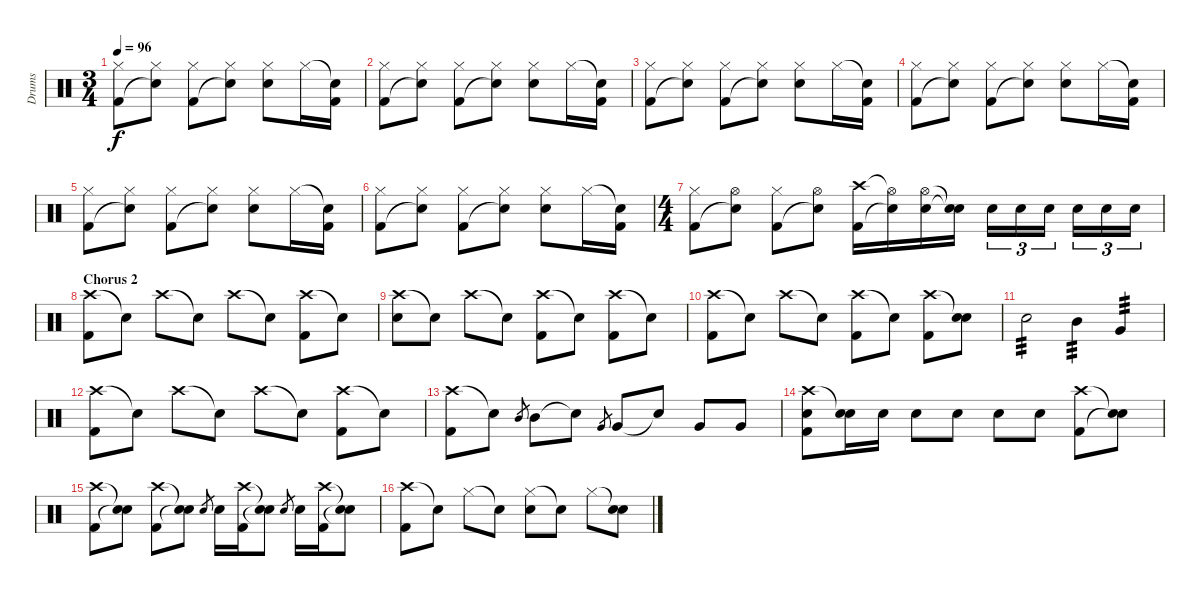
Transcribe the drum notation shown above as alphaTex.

\track ("Drums" "Drums") {instrument percussion}
\staff {score}
\articulation defaults
\ts (3 4)
\tempo 96
\clef neutral
\ks c
("Hi-Hat (closed)" "Kick (hit) 2").8{dy f} ("Hi-Hat (closed)" "Snare (hit)"{t}).8 ("Hi-Hat (closed)" "Kick (hit) 2").8 ("Hi-Hat (closed)" "Snare (hit)"{t}).8 ("Hi-Hat (closed)" "Electric Snare (hit)").8 "Hi-Hat (closed)".16 ("Snare (hit)"{t} "Kick (hit) 2").16 |
("Hi-Hat (closed)" "Kick (hit) 2").8 ("Hi-Hat (closed)" "Snare (hit)"{t}).8 ("Hi-Hat (closed)" "Kick (hit) 2").8 ("Hi-Hat (closed)" "Snare (hit)"{t}).8 ("Hi-Hat (closed)" "Electric Snare (hit)").8 "Hi-Hat (closed)".16 ("Snare (hit)"{t} "Kick (hit) 2").16 |
("Hi-Hat (closed)" "Kick (hit) 2").8 ("Hi-Hat (closed)" "Snare (hit)"{t}).8 ("Hi-Hat (closed)" "Kick (hit) 2").8 ("Hi-Hat (closed)" "Snare (hit)"{t}).8 ("Hi-Hat (closed)" "Electric Snare (hit)").8 "Hi-Hat (closed)".16 ("Snare (hit)"{t} "Kick (hit) 2").16 |
("Hi-Hat (closed)" "Kick (hit) 2").8 ("Hi-Hat (closed)" "Snare (hit)"{t}).8 ("Hi-Hat (closed)" "Kick (hit) 2").8 ("Hi-Hat (closed)" "Snare (hit)"{t}).8 ("Hi-Hat (closed)" "Electric Snare (hit)").8 "Hi-Hat (closed)".16 ("Snare (hit)"{t} "Kick (hit) 2").16 |
("Hi-Hat (closed)" "Kick (hit) 2").8 ("Hi-Hat (closed)" "Snare (hit)"{t}).8 ("Hi-Hat (closed)" "Kick (hit) 2").8 ("Hi-Hat (closed)" "Snare (hit)"{t}).8 ("Hi-Hat (closed)" "Electric Snare (hit)").8 "Hi-Hat (closed)".16 ("Snare (hit)"{t} "Kick (hit) 2").16 |
("Hi-Hat (closed)" "Kick (hit) 2").8 ("Hi-Hat (closed)" "Snare (hit)"{t}).8 ("Hi-Hat (closed)" "Kick (hit) 2").8 ("Hi-Hat (closed)" "Snare (hit)"{t}).8 ("Hi-Hat (closed)" "Electric Snare (hit)").8 "Hi-Hat (closed)".16 ("Snare (hit)"{t} "Kick (hit) 2").16 |
\ts (4 4)
("Hi-Hat (closed)" "Kick (hit) 2").8 ("Hi-Hat (open)" "Snare (hit)"{t}).8 ("Hi-Hat (closed)" "Kick (hit) 2").8 ("Hi-Hat (open)" "Snare (hit)"{t}).8 ("Crash high (hit)" "Kick (hit) 2").16 ("Hi-Hat (open)"{t} "Snare (hit)"{t}).16 ("Hi-Hat (open)" "Electric Snare (hit)").16 ("Snare (hit)"{t} "Electric Snare (hit)"{t}).16 "Electric Snare (hit)".16{tu (3 2)} "Electric Snare (hit)".16{tu (3 2)} "Electric Snare (hit)".16{tu (3 2)} "Electric Snare (hit)".16{tu (3 2)} "Electric Snare (hit)".16{tu (3 2)} "Electric Snare (hit)".16{tu (3 2)} |
\section ("" "Chorus 2")
("Crash high (hit)" "Kick (hit) 2").8 "Snare (hit)"{t}.8 "Crash high (hit)".8 "Snare (hit)"{t}.8 "Crash high (hit)".8 "Snare (hit)"{t}.8 ("Crash high (hit)" "Kick (hit) 2").8 "Snare (hit)"{t}.8 |
("Crash high (hit)" "Electric Snare (hit)").8 "Snare (hit)"{t}.8 "Crash high (hit)".8 "Snare (hit)"{t}.8 ("Crash high (hit)" "Kick (hit) 2").8 "Snare (hit)"{t}.8 ("Crash high (hit)" "Kick (hit) 2").8 "Snare (hit)"{t}.8 |
("Crash high (hit)" "Kick (hit) 2").8 "Snare (hit)"{t}.8 "Crash high (hit)".8 "Snare (hit)"{t}.8 ("Crash high (hit)" "Kick (hit) 2").8 "Snare (hit)"{t}.8 ("Crash high (hit)" "Kick (hit) 2").8 ("Snare (hit)"{t} "Electric Snare (hit)").8 |
"Electric Snare (hit)".2{tp 3} "Mid Tom (hit)".4{tp 3} "Very Low Tom (hit)".4{tp 3} |
("Crash high (hit)" "Kick (hit) 2").8 "Snare (hit)"{t}.8 "Crash high (hit)".8 "Snare (hit)"{t}.8 "Crash high (hit)".8 "Snare (hit)"{t}.8 ("Crash high (hit)" "Kick (hit) 2").8 "Snare (hit)"{t}.8 |
("Crash high (hit)" "Kick (hit) 2").8 "Snare (hit)"{t}.8 "Mid Tom (hit)".8{gr} "Mid Tom (hit)".8 "Snare (hit)"{t}.8 "Very Low Tom (hit)".8{gr} "Very Low Tom (hit)".8 "Snare (hit)"{t}.8 "Very Low Tom (hit)".8 "Very Low Tom (hit)".8 |
("Crash high (hit)" "Electric Snare (hit)" "Kick (hit) 2").8 ("Snare (hit)"{t} "Electric Snare (hit)").16 "Electric Snare (hit)".16 "Electric Snare (hit)".8 "Electric Snare (hit)".8 "Electric Snare (hit)".8 "Electric Snare (hit)".8 ("Crash high (hit)" "Kick (hit) 2").8 ("Snare (hit)"{t} "Snare (hit)"{t}).8 |
("Crash high (hit)" "Kick (hit) 2").8 ("Snare (hit)"{t} "Snare (hit)"{t}).8 ("Crash high (hit)" "Kick (hit) 2").8 ("Snare (hit)"{t} "Snare (hit)"{t}).8 "Electric Snare (hit)".8{gr} "Electric Snare (hit)".16 ("Crash high (hit)" "Kick (hit) 2").16 ("Snare (hit)"{t} "Snare (hit)"{t}).8 "Electric Snare (hit)".8{gr} "Electric Snare (hit)".16 ("Crash high (hit)" "Kick (hit) 2").16 ("Snare (hit)"{t} "Snare (hit)"{t}).8 |
("Crash high (hit)" "Kick (hit) 2").8 "Snare (hit)"{t}.8 "Hi-Hat (closed)".8 "Snare (hit)"{t}.8 ("Hi-Hat (closed)" "Electric Snare (hit)").8 "Snare (hit)"{t}.8 "Hi-Hat (closed)".8 ("Snare (hit)"{t} "Electric Snare (hit)").8
